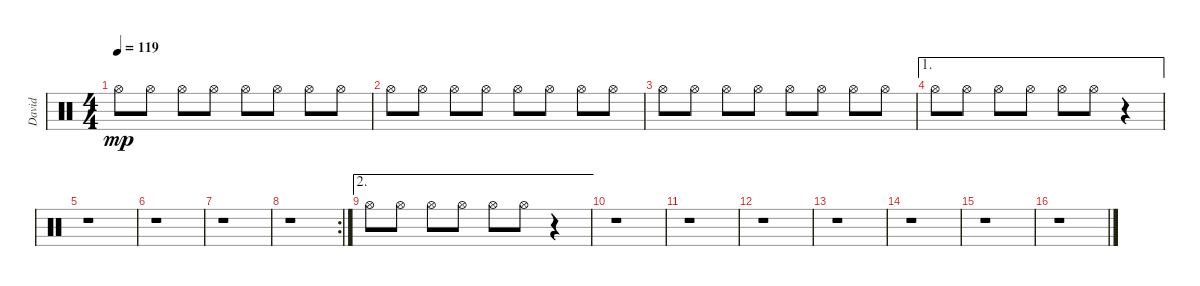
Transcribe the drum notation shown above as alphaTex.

\track ("David" "David") {instrument percussion}
\staff {score}
\articulation defaults
\ts (4 4)
\tempo 119
\clef neutral
\ks c "Hi-Hat (open)".8{dy mp} "Hi-Hat (open)".8 "Hi-Hat (open)".8 "Hi-Hat (open)".8 "Hi-Hat (open)".8 "Hi-Hat (open)".8 "Hi-Hat (open)".8 "Hi-Hat (open)".8
|
"Hi-Hat (open)".8 "Hi-Hat (open)".8 "Hi-Hat (open)".8 "Hi-Hat (open)".8 "Hi-Hat (open)".8 "Hi-Hat (open)".8 "Hi-Hat (open)".8 "Hi-Hat (open)".8 |
"Hi-Hat (open)".8 "Hi-Hat (open)".8 "Hi-Hat (open)".8 "Hi-Hat (open)".8 "Hi-Hat (open)".8 "Hi-Hat (open)".8 "Hi-Hat (open)".8 "Hi-Hat (open)".8 |
\ae 1 "Hi-Hat (open)".8 "Hi-Hat (open)".8 "Hi-Hat (open)".8 "Hi-Hat (open)".8 "Hi-Hat (open)".8 "Hi-Hat (open)".8
r.4 |
r.1 |
r.1 |
r.1 |
\rc 2
r.1 |
\ae 2 "Hi-Hat (open)".8 "Hi-Hat (open)".8 "Hi-Hat (open)".8 "Hi-Hat (open)".8 "Hi-Hat (open)".8 "Hi-Hat (open)".8
r.4 |
r.1 |
r.1 |
r.1 |
r.1 |
r.1 |
r.1 |
r.1
